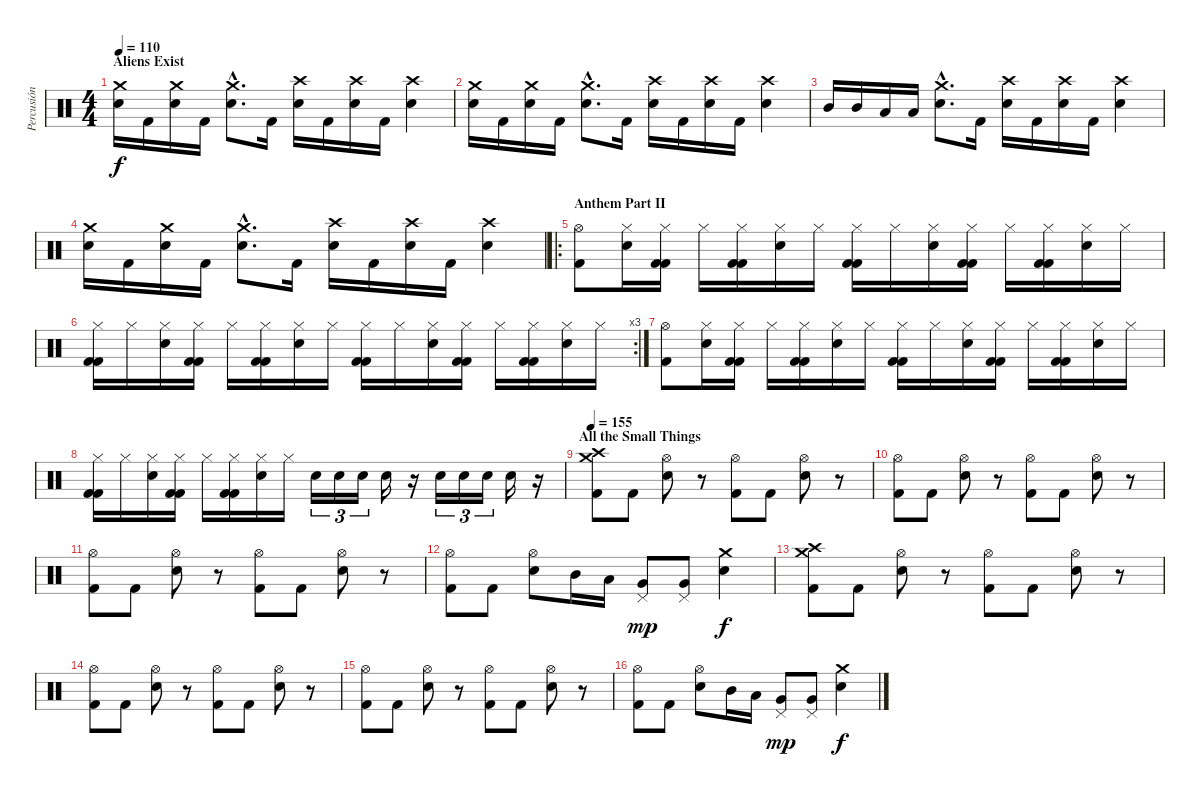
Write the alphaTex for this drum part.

\track ("Percusión" "Percusión") {instrument percussion}
\staff {score}
\articulation defaults
\ts (4 4)
\section ("" "Aliens Exist")
\tempo 110
\clef neutral
\ks c
("Crash medium (hit)" "Electric Snare (hit)").16{dy f} "Kick (hit) 2".16 ("Crash medium (hit)" "Electric Snare (hit)").16 "Kick (hit) 2".16 ("Crash medium (hit)"{hac} "Electric Snare (hit)"{hac}).8{d} "Kick (hit) 2".16 ("Crash high (hit)" "Electric Snare (hit)").16 "Kick (hit) 2".16 ("Crash high (hit)" "Electric Snare (hit)").16 "Kick (hit) 2".16 ("Crash high (hit)" "Electric Snare (hit)").4 |
("Crash medium (hit)" "Electric Snare (hit)").16 "Kick (hit) 2".16 ("Crash medium (hit)" "Electric Snare (hit)").16 "Kick (hit) 2".16 ("Crash medium (hit)"{hac} "Electric Snare (hit)"{hac}).8{d} "Kick (hit) 2".16 ("Crash high (hit)" "Electric Snare (hit)").16 "Kick (hit) 2".16 ("Crash high (hit)" "Electric Snare (hit)").16 "Kick (hit) 2".16 ("Crash high (hit)" "Electric Snare (hit)").4 |
"Mid Tom (hit)".16 "Mid Tom (hit)".16 "Low Tom (hit)".16 "Low Tom (hit)".16 ("Crash medium (hit)"{hac} "Electric Snare (hit)"{hac}).8{d} "Kick (hit) 2".16 ("Crash high (hit)" "Electric Snare (hit)").16 "Kick (hit) 2".16 ("Crash high (hit)" "Electric Snare (hit)").16 "Kick (hit) 2".16 ("Crash high (hit)" "Electric Snare (hit)").4 |
("Crash medium (hit)" "Electric Snare (hit)").16 "Kick (hit) 2".16 ("Crash medium (hit)" "Electric Snare (hit)").16 "Kick (hit) 2".16 ("Crash medium (hit)"{hac} "Electric Snare (hit)"{hac}).8{d} "Kick (hit) 2".16 ("Crash high (hit)" "Electric Snare (hit)").16 "Kick (hit) 2".16 ("Crash high (hit)" "Electric Snare (hit)").16 "Kick (hit) 2".16 ("Crash high (hit)" "Electric Snare (hit)").4 |
\ro
\section ("" "Anthem Part II")
("Hi-Hat (open)" "Kick (hit) 2").8 ("Hi-Hat (closed)" "Electric Snare (hit)").16 ("Hi-Hat (closed)" "Kick (hit) 2" "Kick (hit) 2").16 "Hi-Hat (closed)".16 ("Hi-Hat (closed)" "Kick (hit) 2" "Kick (hit) 2").16 ("Hi-Hat (closed)" "Electric Snare (hit)").16 "Hi-Hat (closed)".16 ("Hi-Hat (closed)" "Kick (hit) 2" "Kick (hit) 2").16 "Hi-Hat (closed)".16 ("Hi-Hat (closed)" "Electric Snare (hit)").16 ("Hi-Hat (closed)" "Kick (hit) 2" "Kick (hit) 2").16 "Hi-Hat (closed)".16 ("Hi-Hat (closed)" "Kick (hit) 2" "Kick (hit) 2").16 ("Hi-Hat (closed)" "Electric Snare (hit)").16 "Hi-Hat (closed)".16 |
\rc 3
("Hi-Hat (closed)" "Kick (hit) 2" "Kick (hit) 2").16 "Hi-Hat (closed)".16 ("Hi-Hat (closed)" "Electric Snare (hit)").16 ("Hi-Hat (closed)" "Kick (hit) 2" "Kick (hit) 2").16 "Hi-Hat (closed)".16 ("Hi-Hat (closed)" "Kick (hit) 2" "Kick (hit) 2").16 ("Hi-Hat (closed)" "Electric Snare (hit)").16 "Hi-Hat (closed)".16 ("Hi-Hat (closed)" "Kick (hit) 2" "Kick (hit) 2").16 "Hi-Hat (closed)".16 ("Hi-Hat (closed)" "Electric Snare (hit)").16 ("Hi-Hat (closed)" "Kick (hit) 2" "Kick (hit) 2").16 "Hi-Hat (closed)".16 ("Hi-Hat (closed)" "Kick (hit) 2" "Kick (hit) 2").16 ("Hi-Hat (closed)" "Electric Snare (hit)").16 "Hi-Hat (closed)".16 |
("Hi-Hat (open)" "Kick (hit) 2").8 ("Hi-Hat (closed)" "Electric Snare (hit)").16 ("Hi-Hat (closed)" "Kick (hit) 2" "Kick (hit) 2").16 "Hi-Hat (closed)".16 ("Hi-Hat (closed)" "Kick (hit) 2" "Kick (hit) 2").16 ("Hi-Hat (closed)" "Electric Snare (hit)").16 "Hi-Hat (closed)".16 ("Hi-Hat (closed)" "Kick (hit) 2" "Kick (hit) 2").16 "Hi-Hat (closed)".16 ("Hi-Hat (closed)" "Electric Snare (hit)").16 ("Hi-Hat (closed)" "Kick (hit) 2" "Kick (hit) 2").16 "Hi-Hat (closed)".16 ("Hi-Hat (closed)" "Kick (hit) 2" "Kick (hit) 2").16 ("Hi-Hat (closed)" "Electric Snare (hit)").16 "Hi-Hat (closed)".16 |
("Hi-Hat (closed)" "Kick (hit) 2" "Kick (hit) 2").16 "Hi-Hat (closed)".16 ("Hi-Hat (closed)" "Electric Snare (hit)").16 ("Hi-Hat (closed)" "Kick (hit) 2" "Kick (hit) 2").16 "Hi-Hat (closed)".16 ("Hi-Hat (closed)" "Kick (hit) 2" "Kick (hit) 2").16 ("Hi-Hat (closed)" "Electric Snare (hit)").16 "Hi-Hat (closed)".16 "Electric Snare (hit)".16{tu (3 2)} "Electric Snare (hit)".16{tu (3 2)} "Electric Snare (hit)".16{tu (3 2)} "Electric Snare (hit)".16 r.16 "Electric Snare (hit)".16{tu (3 2)} "Electric Snare (hit)".16{tu (3 2)} "Electric Snare (hit)".16{tu (3 2)} "Electric Snare (hit)".16 r.16 |
\section ("" "All the Small Things")
\tempo 155
("Crash high (hit)" "Crash medium (hit)" "Kick (hit) 2").8 "Kick (hit) 2".8 ("Hi-Hat (open)" "Electric Snare (hit)").8 r.8 ("Hi-Hat (open)" "Kick (hit) 2").8 "Kick (hit) 2".8 ("Hi-Hat (open)" "Electric Snare (hit)").8 r.8 |
("Hi-Hat (open)" "Kick (hit) 2").8 "Kick (hit) 2".8 ("Hi-Hat (open)" "Electric Snare (hit)").8 r.8 ("Hi-Hat (open)" "Kick (hit) 2").8 "Kick (hit) 2".8 ("Hi-Hat (open)" "Electric Snare (hit)").8 r.8 |
("Hi-Hat (open)" "Kick (hit) 2").8 "Kick (hit) 2".8 ("Hi-Hat (open)" "Electric Snare (hit)").8 r.8 ("Hi-Hat (open)" "Kick (hit) 2").8 "Kick (hit) 2".8 ("Hi-Hat (open)" "Electric Snare (hit)").8 r.8 |
("Hi-Hat (open)" "Kick (hit) 2").8 "Kick (hit) 2".8 ("Hi-Hat (open)" "Electric Snare (hit)").8 "Mid Tom (hit)".16 "Low Tom (hit)".16 ("Pedal Hi-Hat (hit)" "Very Low Tom (hit)").8{dy mp} ("Pedal Hi-Hat (hit)" "Very Low Tom (hit)").8 ("Crash medium (hit)" "Electric Snare (hit)").4{dy f} |
("Crash high (hit)" "Crash medium (hit)" "Kick (hit) 2").8 "Kick (hit) 2".8 ("Hi-Hat (open)" "Electric Snare (hit)").8 r.8 ("Hi-Hat (open)" "Kick (hit) 2").8 "Kick (hit) 2".8 ("Hi-Hat (open)" "Electric Snare (hit)").8 r.8 |
("Hi-Hat (open)" "Kick (hit) 2").8 "Kick (hit) 2".8 ("Hi-Hat (open)" "Electric Snare (hit)").8 r.8 ("Hi-Hat (open)" "Kick (hit) 2").8 "Kick (hit) 2".8 ("Hi-Hat (open)" "Electric Snare (hit)").8 r.8 |
("Hi-Hat (open)" "Kick (hit) 2").8 "Kick (hit) 2".8 ("Hi-Hat (open)" "Electric Snare (hit)").8 r.8 ("Hi-Hat (open)" "Kick (hit) 2").8 "Kick (hit) 2".8 ("Hi-Hat (open)" "Electric Snare (hit)").8 r.8 |
("Hi-Hat (open)" "Kick (hit) 2").8 "Kick (hit) 2".8 ("Hi-Hat (open)" "Electric Snare (hit)").8 "Mid Tom (hit)".16 "Low Tom (hit)".16 ("Pedal Hi-Hat (hit)" "Very Low Tom (hit)").8{dy mp} ("Pedal Hi-Hat (hit)" "Very Low Tom (hit)").8 ("Crash medium (hit)" "Electric Snare (hit)").4{dy f}
